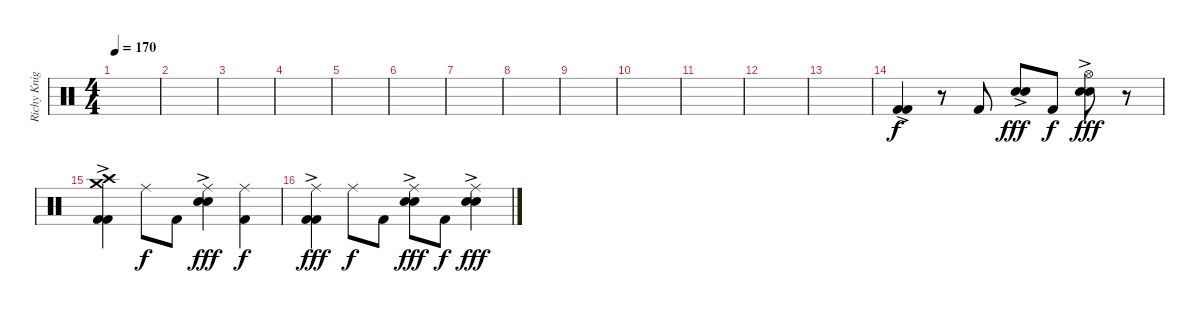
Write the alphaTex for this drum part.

\track ("Richy Knight (Drums)" "Richy Knig") {instrument percussion}
\staff {score}
\articulation defaults
\ts (4 4)
\tempo 170
\clef neutral
\ks c
|
|
|
|
|
|
|
|
|
|
|
|
|
("Kick (hit) 2"{ac} "Kick (hit) 2"{ac}).4 r.8 "Kick (hit) 2".8{dy f} ("Electric Snare (hit)"{ac} "Electric Snare (hit)"{ac}).8{dy fff} "Kick (hit) 2".8{dy f} ("Hi-Hat (open)"{ac} "Electric Snare (hit)"{ac} "Electric Snare (hit)"{ac}).8{dy fff} r.8 |
("Crash high (hit)"{ac} "Crash medium (hit)" "Kick (hit) 2"{ac} "Kick (hit) 2"{ac}).4 "Ride (middle)".8{dy f} "Kick (hit) 2".8 ("Ride (middle)"{ac} "Electric Snare (hit)"{ac} "Electric Snare (hit)"{ac}).4{dy fff} ("Ride (middle)" "Kick (hit) 2").4{dy f} |
("Ride (middle)"{ac} "Kick (hit) 2"{ac} "Kick (hit) 2"{ac}).4{dy fff} "Ride (middle)".8{dy f} "Kick (hit) 2".8 ("Ride (middle)"{ac} "Electric Snare (hit)"{ac} "Electric Snare (hit)"{ac}).8{dy fff} "Kick (hit) 2".8{dy f} ("Ride (middle)"{ac} "Electric Snare (hit)"{ac} "Electric Snare (hit)"{ac}).4{dy fff}
